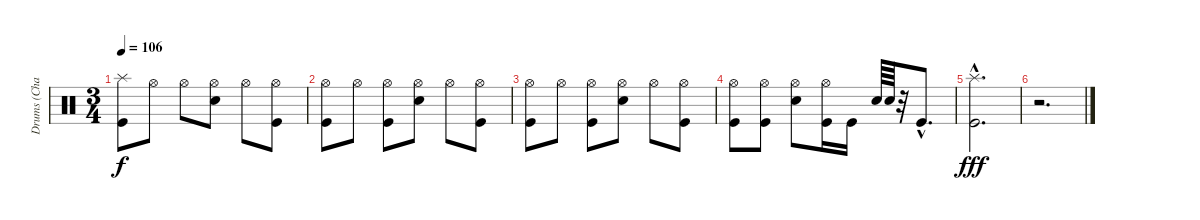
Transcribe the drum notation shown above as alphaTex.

\track ("Drums (Chad?)" "Drums (Cha") {instrument percussion}
\staff {score}
\articulation defaults
\ts (3 4)
\tempo 106
\clef neutral
\ks c
("Splash (hit)" "Kick (hit)").8{dy f} "Hi-Hat (open)".8 "Hi-Hat (open)".8 ("Hi-Hat (open)" "Snare (hit) 2").8 "Hi-Hat (open)".8 ("Hi-Hat (open)" "Kick (hit)").8 |
("Hi-Hat (open)" "Kick (hit)").8 "Hi-Hat (open)".8 ("Hi-Hat (open)" "Kick (hit)").8 ("Hi-Hat (open)" "Snare (hit) 2").8 "Hi-Hat (open)".8 ("Hi-Hat (open)" "Kick (hit)").8 |
("Hi-Hat (open)" "Kick (hit)").8 "Hi-Hat (open)".8 ("Hi-Hat (open)" "Kick (hit)").8 ("Hi-Hat (open)" "Snare (hit) 2").8 "Hi-Hat (open)".8 ("Hi-Hat (open)" "Kick (hit)").8 |
("Hi-Hat (open)" "Kick (hit)").8 ("Hi-Hat (open)" "Kick (hit)").8 ("Hi-Hat (open)" "Snare (hit) 2").8 ("Hi-Hat (open)" "Kick (hit)").16 "Kick (hit)".16 "Snare (hit) 2".64 "Snare (hit) 2".64 r.32 "Kick (hit)"{hac}.8{d} |
("Splash (hit)"{hac} "Kick (hit)"{hac}).2{d dy fff} |
r.2{d}
